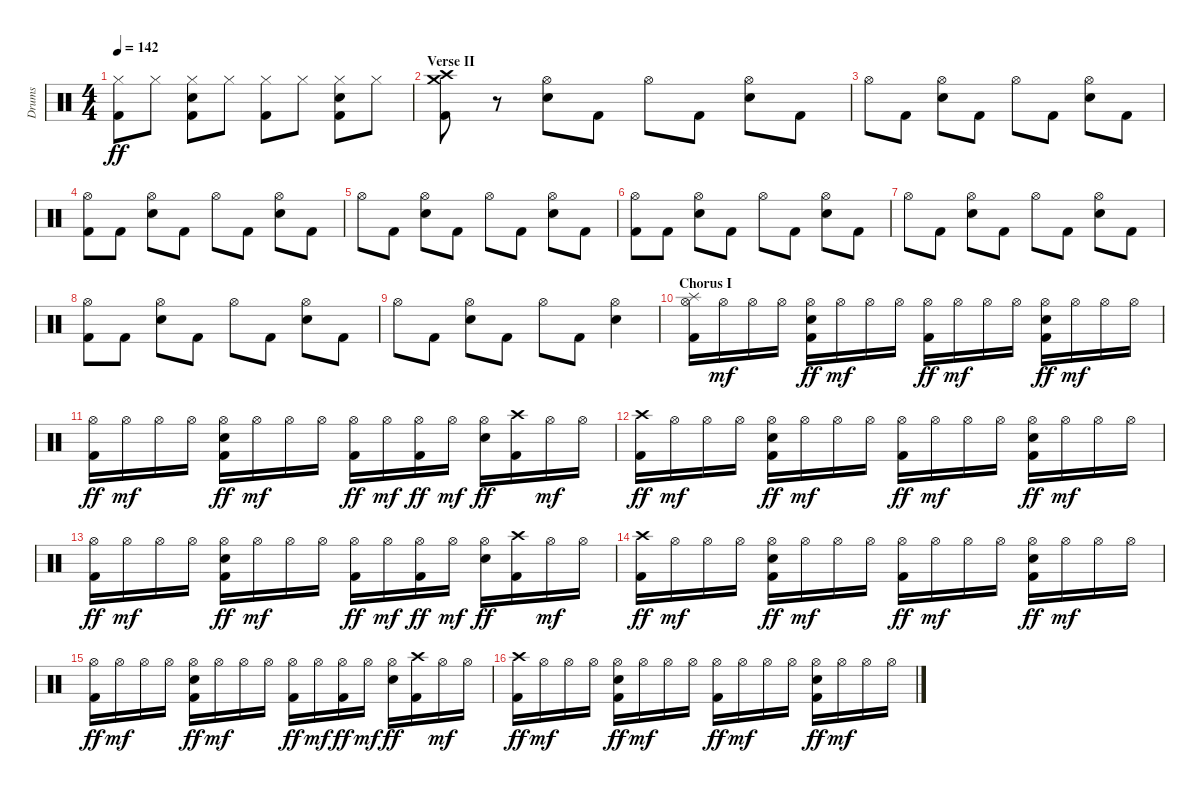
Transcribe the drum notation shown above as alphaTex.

\track ("Drums" "Drums") {instrument percussion}
\staff {score}
\articulation defaults
\ts (4 4)
\tempo 142
\clef neutral
\ks c
("Hi-Hat (closed)" "Kick (hit) 2").8{dy ff} "Hi-Hat (closed)".8 ("Hi-Hat (closed)" "Snare (hit) 2" "Kick (hit) 2").8 "Hi-Hat (closed)".8 ("Hi-Hat (closed)" "Kick (hit) 2").8 "Hi-Hat (closed)".8 ("Hi-Hat (closed)" "Snare (hit) 2" "Kick (hit) 2").8 "Hi-Hat (closed)".8 |
\section ("" "Verse II")
("Crash high (hit)" "Crash medium (hit)" "Kick (hit) 2").8 r.8 ("Hi-Hat (open)" "Snare (hit) 2").8 "Kick (hit) 2".8 "Hi-Hat (open)".8 "Kick (hit) 2".8 ("Hi-Hat (open)" "Snare (hit) 2").8 "Kick (hit) 2".8 |
"Hi-Hat (open)".8 "Kick (hit) 2".8 ("Hi-Hat (open)" "Snare (hit) 2").8 "Kick (hit) 2".8 "Hi-Hat (open)".8 "Kick (hit) 2".8 ("Hi-Hat (open)" "Snare (hit) 2").8 "Kick (hit) 2".8 |
("Hi-Hat (open)" "Kick (hit) 2").8 "Kick (hit) 2".8 ("Hi-Hat (open)" "Snare (hit) 2").8 "Kick (hit) 2".8 "Hi-Hat (open)".8 "Kick (hit) 2".8 ("Hi-Hat (open)" "Snare (hit) 2").8 "Kick (hit) 2".8 |
"Hi-Hat (open)".8 "Kick (hit) 2".8 ("Hi-Hat (open)" "Snare (hit) 2").8 "Kick (hit) 2".8 "Hi-Hat (open)".8 "Kick (hit) 2".8 ("Hi-Hat (open)" "Snare (hit) 2").8 "Kick (hit) 2".8 |
("Hi-Hat (open)" "Kick (hit) 2").8 "Kick (hit) 2".8 ("Hi-Hat (open)" "Snare (hit) 2").8 "Kick (hit) 2".8 "Hi-Hat (open)".8 "Kick (hit) 2".8 ("Hi-Hat (open)" "Snare (hit) 2").8 "Kick (hit) 2".8 |
"Hi-Hat (open)".8 "Kick (hit) 2".8 ("Hi-Hat (open)" "Snare (hit) 2").8 "Kick (hit) 2".8 "Hi-Hat (open)".8 "Kick (hit) 2".8 ("Hi-Hat (open)" "Snare (hit) 2").8 "Kick (hit) 2".8 |
("Hi-Hat (open)" "Kick (hit) 2").8 "Kick (hit) 2".8 ("Hi-Hat (open)" "Snare (hit) 2").8 "Kick (hit) 2".8 "Hi-Hat (open)".8 "Kick (hit) 2".8 ("Hi-Hat (open)" "Snare (hit) 2").8 "Kick (hit) 2".8 |
"Hi-Hat (open)".8 "Kick (hit) 2".8 ("Hi-Hat (open)" "Snare (hit) 2").8 "Kick (hit) 2".8 "Hi-Hat (open)".8 "Kick (hit) 2".8 ("Hi-Hat (open)" "Snare (hit) 2").4 |
\section ("" "Chorus I")
("Hi-Hat (open)" "Splash (hit)" "Kick (hit) 2").16 "Hi-Hat (open)".16{dy mf} "Hi-Hat (open)".16 "Hi-Hat (open)".16 ("Hi-Hat (open)" "Snare (hit) 2" "Kick (hit) 2").16{dy ff} "Hi-Hat (open)".16{dy mf} "Hi-Hat (open)".16 "Hi-Hat (open)".16 ("Hi-Hat (open)" "Kick (hit) 2").16{dy ff} "Hi-Hat (open)".16{dy mf} "Hi-Hat (open)".16 "Hi-Hat (open)".16 ("Hi-Hat (open)" "Snare (hit) 2" "Kick (hit) 2").16{dy ff} "Hi-Hat (open)".16{dy mf} "Hi-Hat (open)".16 "Hi-Hat (open)".16 |
("Hi-Hat (open)" "Kick (hit) 2").16{dy ff} "Hi-Hat (open)".16{dy mf} "Hi-Hat (open)".16 "Hi-Hat (open)".16 ("Hi-Hat (open)" "Snare (hit) 2" "Kick (hit) 2").16{dy ff} "Hi-Hat (open)".16{dy mf} "Hi-Hat (open)".16 "Hi-Hat (open)".16 ("Hi-Hat (open)" "Kick (hit) 2").16{dy ff} "Hi-Hat (open)".16{dy mf} ("Hi-Hat (open)" "Kick (hit) 2").16{dy ff} "Hi-Hat (open)".16{dy mf} ("Hi-Hat (open)" "Snare (hit) 2").16{dy ff} ("Crash high (hit)" "Kick (hit) 2").16 "Hi-Hat (open)".16{dy mf} "Hi-Hat (open)".16 |
("Crash high (hit)" "Kick (hit) 2").16{dy ff} "Hi-Hat (open)".16{dy mf} "Hi-Hat (open)".16 "Hi-Hat (open)".16 ("Hi-Hat (open)" "Snare (hit) 2" "Kick (hit) 2").16{dy ff} "Hi-Hat (open)".16{dy mf} "Hi-Hat (open)".16 "Hi-Hat (open)".16 ("Hi-Hat (open)" "Kick (hit) 2").16{dy ff} "Hi-Hat (open)".16{dy mf} "Hi-Hat (open)".16 "Hi-Hat (open)".16 ("Hi-Hat (open)" "Snare (hit) 2" "Kick (hit) 2").16{dy ff} "Hi-Hat (open)".16{dy mf} "Hi-Hat (open)".16 "Hi-Hat (open)".16 |
("Hi-Hat (open)" "Kick (hit) 2").16{dy ff} "Hi-Hat (open)".16{dy mf} "Hi-Hat (open)".16 "Hi-Hat (open)".16 ("Hi-Hat (open)" "Snare (hit) 2" "Kick (hit) 2").16{dy ff} "Hi-Hat (open)".16{dy mf} "Hi-Hat (open)".16 "Hi-Hat (open)".16 ("Hi-Hat (open)" "Kick (hit) 2").16{dy ff} "Hi-Hat (open)".16{dy mf} ("Hi-Hat (open)" "Kick (hit) 2").16{dy ff} "Hi-Hat (open)".16{dy mf} ("Hi-Hat (open)" "Snare (hit) 2").16{dy ff} ("Crash high (hit)" "Kick (hit) 2").16 "Hi-Hat (open)".16{dy mf} "Hi-Hat (open)".16 |
("Crash high (hit)" "Kick (hit) 2").16{dy ff} "Hi-Hat (open)".16{dy mf} "Hi-Hat (open)".16 "Hi-Hat (open)".16 ("Hi-Hat (open)" "Snare (hit) 2" "Kick (hit) 2").16{dy ff} "Hi-Hat (open)".16{dy mf} "Hi-Hat (open)".16 "Hi-Hat (open)".16 ("Hi-Hat (open)" "Kick (hit) 2").16{dy ff} "Hi-Hat (open)".16{dy mf} "Hi-Hat (open)".16 "Hi-Hat (open)".16 ("Hi-Hat (open)" "Snare (hit) 2" "Kick (hit) 2").16{dy ff} "Hi-Hat (open)".16{dy mf} "Hi-Hat (open)".16 "Hi-Hat (open)".16 |
("Hi-Hat (open)" "Kick (hit) 2").16{dy ff} "Hi-Hat (open)".16{dy mf} "Hi-Hat (open)".16 "Hi-Hat (open)".16 ("Hi-Hat (open)" "Snare (hit) 2" "Kick (hit) 2").16{dy ff} "Hi-Hat (open)".16{dy mf} "Hi-Hat (open)".16 "Hi-Hat (open)".16 ("Hi-Hat (open)" "Kick (hit) 2").16{dy ff} "Hi-Hat (open)".16{dy mf} ("Hi-Hat (open)" "Kick (hit) 2").16{dy ff} "Hi-Hat (open)".16{dy mf} ("Hi-Hat (open)" "Snare (hit) 2").16{dy ff} ("Crash high (hit)" "Kick (hit) 2").16 "Hi-Hat (open)".16{dy mf} "Hi-Hat (open)".16 |
("Crash high (hit)" "Kick (hit) 2").16{dy ff} "Hi-Hat (open)".16{dy mf} "Hi-Hat (open)".16 "Hi-Hat (open)".16 ("Hi-Hat (open)" "Snare (hit) 2" "Kick (hit) 2").16{dy ff} "Hi-Hat (open)".16{dy mf} "Hi-Hat (open)".16 "Hi-Hat (open)".16 ("Hi-Hat (open)" "Kick (hit) 2").16{dy ff} "Hi-Hat (open)".16{dy mf} "Hi-Hat (open)".16 "Hi-Hat (open)".16 ("Hi-Hat (open)" "Snare (hit) 2" "Kick (hit) 2").16{dy ff} "Hi-Hat (open)".16{dy mf} "Hi-Hat (open)".16 "Hi-Hat (open)".16
